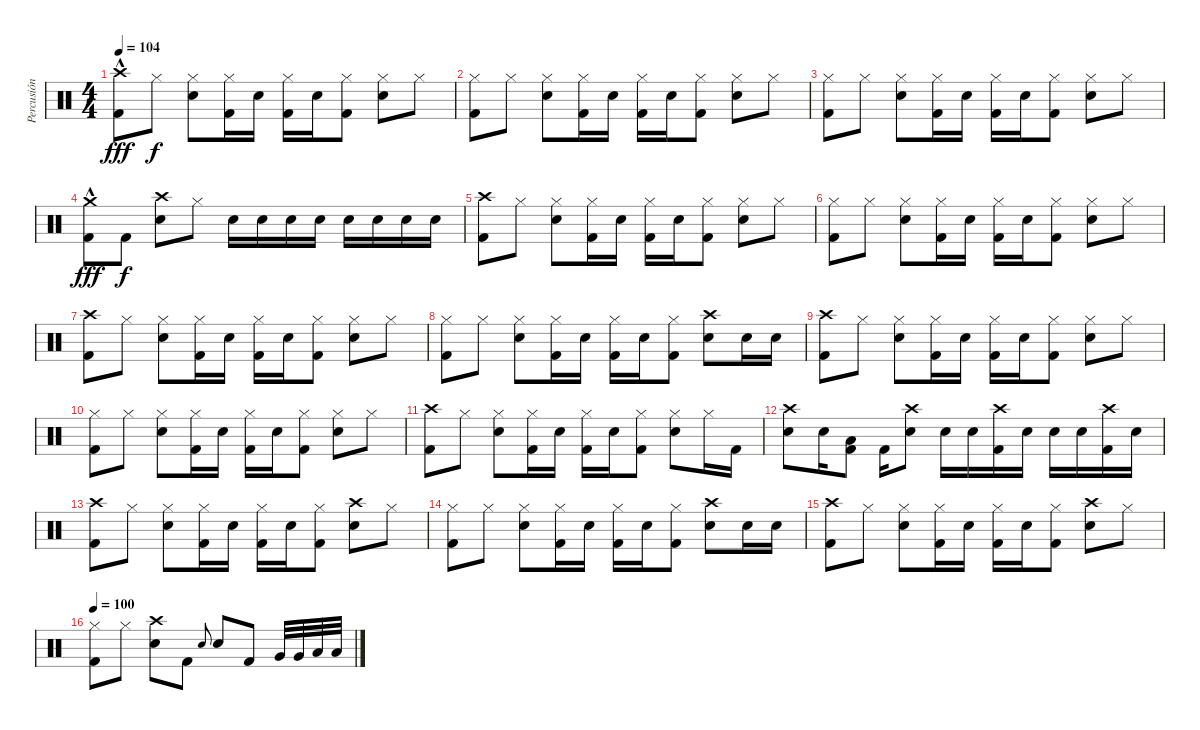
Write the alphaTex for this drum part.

\track ("Percusión" "Percusión") {instrument percussion}
\staff {score}
\articulation defaults
\ts (4 4)
\tempo 104
\clef neutral
\ks c
("Crash high (hit)"{hac} "Kick (hit) 2").8{dy fff} "Hi-Hat (closed)".8{dy f} ("Hi-Hat (closed)" "Snare (hit) 2").8 ("Hi-Hat (closed)" "Kick (hit) 2").16 "Snare (hit) 2".16 ("Hi-Hat (closed)" "Kick (hit) 2").16 "Snare (hit) 2".16 ("Hi-Hat (closed)" "Kick (hit) 2").8 ("Hi-Hat (closed)" "Snare (hit) 2").8 "Hi-Hat (closed)".8 |
("Hi-Hat (closed)" "Kick (hit) 2").8 "Hi-Hat (closed)".8 ("Hi-Hat (closed)" "Snare (hit) 2").8 ("Hi-Hat (closed)" "Kick (hit) 2").16 "Snare (hit) 2".16 ("Hi-Hat (closed)" "Kick (hit) 2").16 "Snare (hit) 2".16 ("Hi-Hat (closed)" "Kick (hit) 2").8 ("Hi-Hat (closed)" "Snare (hit) 2").8 "Hi-Hat (closed)".8 |
("Hi-Hat (closed)" "Kick (hit) 2").8 "Hi-Hat (closed)".8 ("Hi-Hat (closed)" "Snare (hit) 2").8 ("Hi-Hat (closed)" "Kick (hit) 2").16 "Snare (hit) 2".16 ("Hi-Hat (closed)" "Kick (hit) 2").16 "Snare (hit) 2".16 ("Hi-Hat (closed)" "Kick (hit) 2").8 ("Hi-Hat (closed)" "Snare (hit) 2").8 "Hi-Hat (closed)".8 |
("Crash medium (hit)"{hac} "Kick (hit) 2").8{dy fff} "Kick (hit) 2".8{dy f} ("Crash high (hit)" "Snare (hit) 2").8 "Hi-Hat (closed)".8 "Snare (hit) 2".16 "Snare (hit) 2".16 "Snare (hit) 2".16 "Snare (hit) 2".16 "Snare (hit) 2".16 "Snare (hit) 2".16 "Snare (hit) 2".16 "Snare (hit) 2".16 |
("Crash high (hit)" "Kick (hit) 2").8 "Hi-Hat (closed)".8 ("Hi-Hat (closed)" "Snare (hit) 2").8 ("Hi-Hat (closed)" "Kick (hit) 2").16 "Snare (hit) 2".16 ("Hi-Hat (closed)" "Kick (hit) 2").16 "Snare (hit) 2".16 ("Hi-Hat (closed)" "Kick (hit) 2").8 ("Hi-Hat (closed)" "Snare (hit) 2").8 "Hi-Hat (closed)".8 |
("Hi-Hat (closed)" "Kick (hit) 2").8 "Hi-Hat (closed)".8 ("Hi-Hat (closed)" "Snare (hit) 2").8 ("Hi-Hat (closed)" "Kick (hit) 2").16 "Snare (hit) 2".16 ("Hi-Hat (closed)" "Kick (hit) 2").16 "Snare (hit) 2".16 ("Hi-Hat (closed)" "Kick (hit) 2").8 ("Hi-Hat (closed)" "Snare (hit) 2").8 "Hi-Hat (closed)".8 |
("Crash high (hit)" "Kick (hit) 2").8 "Hi-Hat (closed)".8 ("Hi-Hat (closed)" "Snare (hit) 2").8 ("Hi-Hat (closed)" "Kick (hit) 2").16 "Snare (hit) 2".16 ("Hi-Hat (closed)" "Kick (hit) 2").16 "Snare (hit) 2".16 ("Hi-Hat (closed)" "Kick (hit) 2").8 ("Hi-Hat (closed)" "Snare (hit) 2").8 "Hi-Hat (closed)".8 |
("Hi-Hat (closed)" "Kick (hit) 2").8 "Hi-Hat (closed)".8 ("Hi-Hat (closed)" "Snare (hit) 2").8 ("Hi-Hat (closed)" "Kick (hit) 2").16 "Snare (hit) 2".16 ("Hi-Hat (closed)" "Kick (hit) 2").16 "Snare (hit) 2".16 ("Hi-Hat (closed)" "Kick (hit) 2").8 ("Crash high (hit)" "Snare (hit) 2").8 "Snare (hit) 2".16 "Snare (hit) 2".16 |
("Crash high (hit)" "Kick (hit) 2").8 "Hi-Hat (closed)".8 ("Hi-Hat (closed)" "Snare (hit) 2").8 ("Hi-Hat (closed)" "Kick (hit) 2").16 "Snare (hit) 2".16 ("Hi-Hat (closed)" "Kick (hit) 2").16 "Snare (hit) 2".16 ("Hi-Hat (closed)" "Kick (hit) 2").8 ("Hi-Hat (closed)" "Snare (hit) 2").8 "Hi-Hat (closed)".8 |
("Hi-Hat (closed)" "Kick (hit) 2").8 "Hi-Hat (closed)".8 ("Hi-Hat (closed)" "Snare (hit) 2").8 ("Hi-Hat (closed)" "Kick (hit) 2").16 "Snare (hit) 2".16 ("Hi-Hat (closed)" "Kick (hit) 2").16 "Snare (hit) 2".16 ("Hi-Hat (closed)" "Kick (hit) 2").8 ("Hi-Hat (closed)" "Snare (hit) 2").8 "Hi-Hat (closed)".8 |
("Crash high (hit)" "Kick (hit) 2").8 "Hi-Hat (closed)".8 ("Hi-Hat (closed)" "Snare (hit) 2").8 ("Hi-Hat (closed)" "Kick (hit) 2").16 "Snare (hit) 2".16 ("Hi-Hat (closed)" "Kick (hit) 2").16 "Snare (hit) 2".16 ("Hi-Hat (closed)" "Kick (hit) 2").8 ("Hi-Hat (closed)" "Snare (hit) 2").8 "Hi-Hat (closed)".16 "Kick (hit) 2".16 |
("Crash high (hit)" "Snare (hit) 2").8 "Snare (hit) 2".16 ("Low Floor Tom (hit)" "Kick (hit) 2").8 "Kick (hit) 2".16 ("Crash high (hit)" "Snare (hit) 2").8 "Snare (hit) 2".16 "Snare (hit) 2".16 ("Crash high (hit)" "Kick (hit) 2").16 "Snare (hit) 2".16 "Snare (hit) 2".16 "Snare (hit) 2".16 ("Crash high (hit)" "Kick (hit) 2").16 "Snare (hit) 2".16 |
("Crash high (hit)" "Kick (hit) 2").8 "Hi-Hat (closed)".8 ("Hi-Hat (closed)" "Snare (hit) 2").8 ("Hi-Hat (closed)" "Kick (hit) 2").16 "Snare (hit) 2".16 ("Hi-Hat (closed)" "Kick (hit) 2").16 "Snare (hit) 2".16 ("Hi-Hat (closed)" "Kick (hit) 2").8 ("Crash high (hit)" "Snare (hit) 2").8 "Hi-Hat (closed)".8 |
("Hi-Hat (closed)" "Kick (hit) 2").8 "Hi-Hat (closed)".8 ("Hi-Hat (closed)" "Snare (hit) 2").8 ("Hi-Hat (closed)" "Kick (hit) 2").16 "Snare (hit) 2".16 ("Hi-Hat (closed)" "Kick (hit) 2").16 "Snare (hit) 2".16 ("Hi-Hat (closed)" "Kick (hit) 2").8 ("Crash high (hit)" "Snare (hit) 2").8 "Snare (hit) 2".16 "Snare (hit) 2".16 |
("Crash high (hit)" "Kick (hit) 2").8 "Hi-Hat (closed)".8 ("Hi-Hat (closed)" "Snare (hit) 2").8 ("Hi-Hat (closed)" "Kick (hit) 2").16 "Snare (hit) 2".16 ("Hi-Hat (closed)" "Kick (hit) 2").16 "Snare (hit) 2".16 ("Hi-Hat (closed)" "Kick (hit) 2").8 ("Crash high (hit)" "Snare (hit) 2").8 "Hi-Hat (closed)".8 |
\tempo 100
("Hi-Hat (closed)" "Kick (hit) 2").8 "Hi-Hat (closed)".8 ("Crash high (hit)" "Snare (hit) 2").8 "Kick (hit) 2".8 "Snare (hit) 2".8{gr onbeat} "Snare (hit) 2".8 "Kick (hit) 2".8 "Very Low Tom (hit)".32 "Very Low Tom (hit)".32 "Low Floor Tom (hit)".32 "Low Floor Tom (hit)".32
